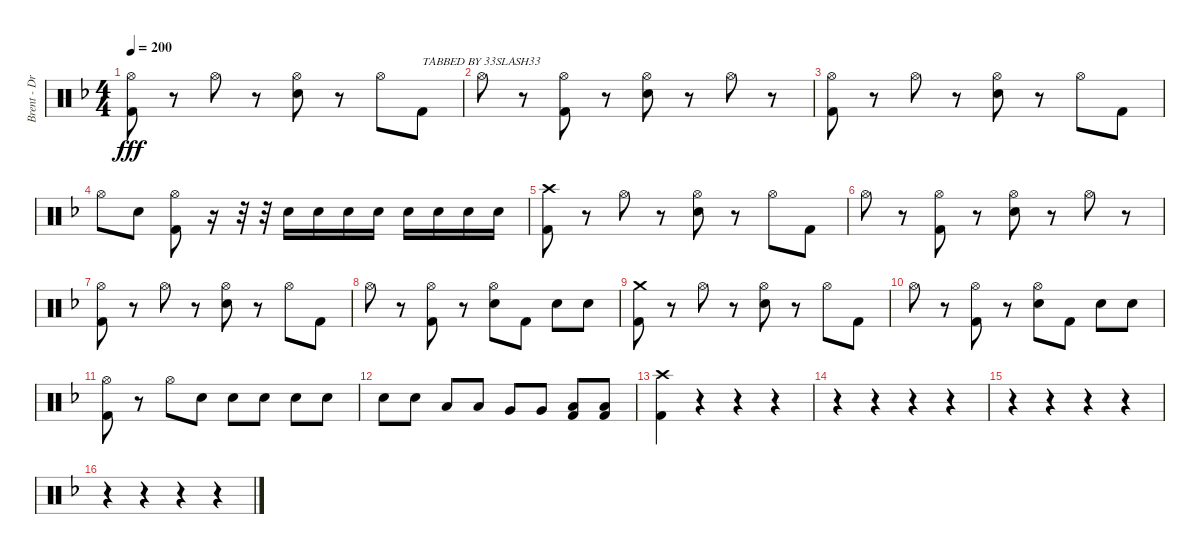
\track ("Brent - Drums" "Brent - Dr") {instrument percussion}
\staff {score}
\articulation defaults
\ts (4 4)
\tempo 200
\clef neutral
\ks dminor
("Hi-Hat (open)" "Kick (hit) 2").8{dy fff} r.8 "Hi-Hat (open)".8 r.8 ("Hi-Hat (open)" "Snare (hit) 2").8 r.8 "Hi-Hat (open)".8 "Kick (hit) 2".8{txt "TABBED BY 33SLASH33"} |
"Hi-Hat (open)".8 r.8 ("Hi-Hat (open)" "Kick (hit) 2").8 r.8 ("Hi-Hat (open)" "Snare (hit) 2").8 r.8 "Hi-Hat (open)".8 r.8 |
("Hi-Hat (open)" "Kick (hit) 2").8 r.8 "Hi-Hat (open)".8 r.8 ("Hi-Hat (open)" "Snare (hit) 2").8 r.8 "Hi-Hat (open)".8 "Kick (hit) 2".8 |
"Hi-Hat (open)".8 "Snare (hit) 2".8 ("Hi-Hat (open)" "Kick (hit) 2").8 r.16 r.32 r.32 "Snare (hit) 2".16 "Snare (hit) 2".16 "Snare (hit) 2".16 "Snare (hit) 2".16 "Snare (hit) 2".16 "Snare (hit) 2".16 "Snare (hit) 2".16 "Snare (hit) 2".16 |
("Crash high (hit)" "Kick (hit) 2").8 r.8 "Hi-Hat (open)".8 r.8 ("Hi-Hat (open)" "Snare (hit) 2").8 r.8 "Hi-Hat (open)".8 "Kick (hit) 2".8 |
"Hi-Hat (open)".8 r.8 ("Hi-Hat (open)" "Kick (hit) 2").8 r.8 ("Hi-Hat (open)" "Snare (hit) 2").8 r.8 "Hi-Hat (open)".8 r.8 |
("Hi-Hat (open)" "Kick (hit) 2").8 r.8 "Hi-Hat (open)".8 r.8 ("Hi-Hat (open)" "Snare (hit) 2").8 r.8 "Hi-Hat (open)".8 "Kick (hit) 2".8 |
"Hi-Hat (open)".8 r.8 ("Hi-Hat (open)" "Kick (hit) 2").8 r.8 ("Hi-Hat (open)" "Snare (hit) 2").8 "Kick (hit) 2".8 "Snare (hit) 2".8 "Snare (hit) 2".8 |
("Crash medium (hit)" "Kick (hit) 2").8 r.8 "Hi-Hat (open)".8 r.8 ("Hi-Hat (open)" "Snare (hit) 2").8 r.8 "Hi-Hat (open)".8 "Kick (hit) 2".8 |
"Hi-Hat (open)".8 r.8 ("Hi-Hat (open)" "Kick (hit) 2").8 r.8 ("Hi-Hat (open)" "Snare (hit) 2").8 "Kick (hit) 2".8 "Snare (hit) 2".8 "Snare (hit) 2".8 |
("Hi-Hat (open)" "Kick (hit) 2").8 r.8 "Hi-Hat (open)".8 "Snare (hit) 2".8 "Snare (hit) 2".8 "Snare (hit) 2".8 "Snare (hit) 2".8 "Snare (hit) 2".8 |
"Snare (hit) 2".8 "Snare (hit) 2".8 "Low Tom (hit)".8 "Low Tom (hit)".8 "Very Low Tom (hit)".8 "Very Low Tom (hit)".8 ("Low Floor Tom (hit)" "Kick (hit) 2").8 ("Low Floor Tom (hit)" "Kick (hit) 2").8 |
("Crash high (hit)" "Kick (hit) 2").4 r.4 r.4 r.4 |
r.4 r.4 r.4 r.4 |
r.4 r.4 r.4 r.4 |
r.4 r.4 r.4 r.4
